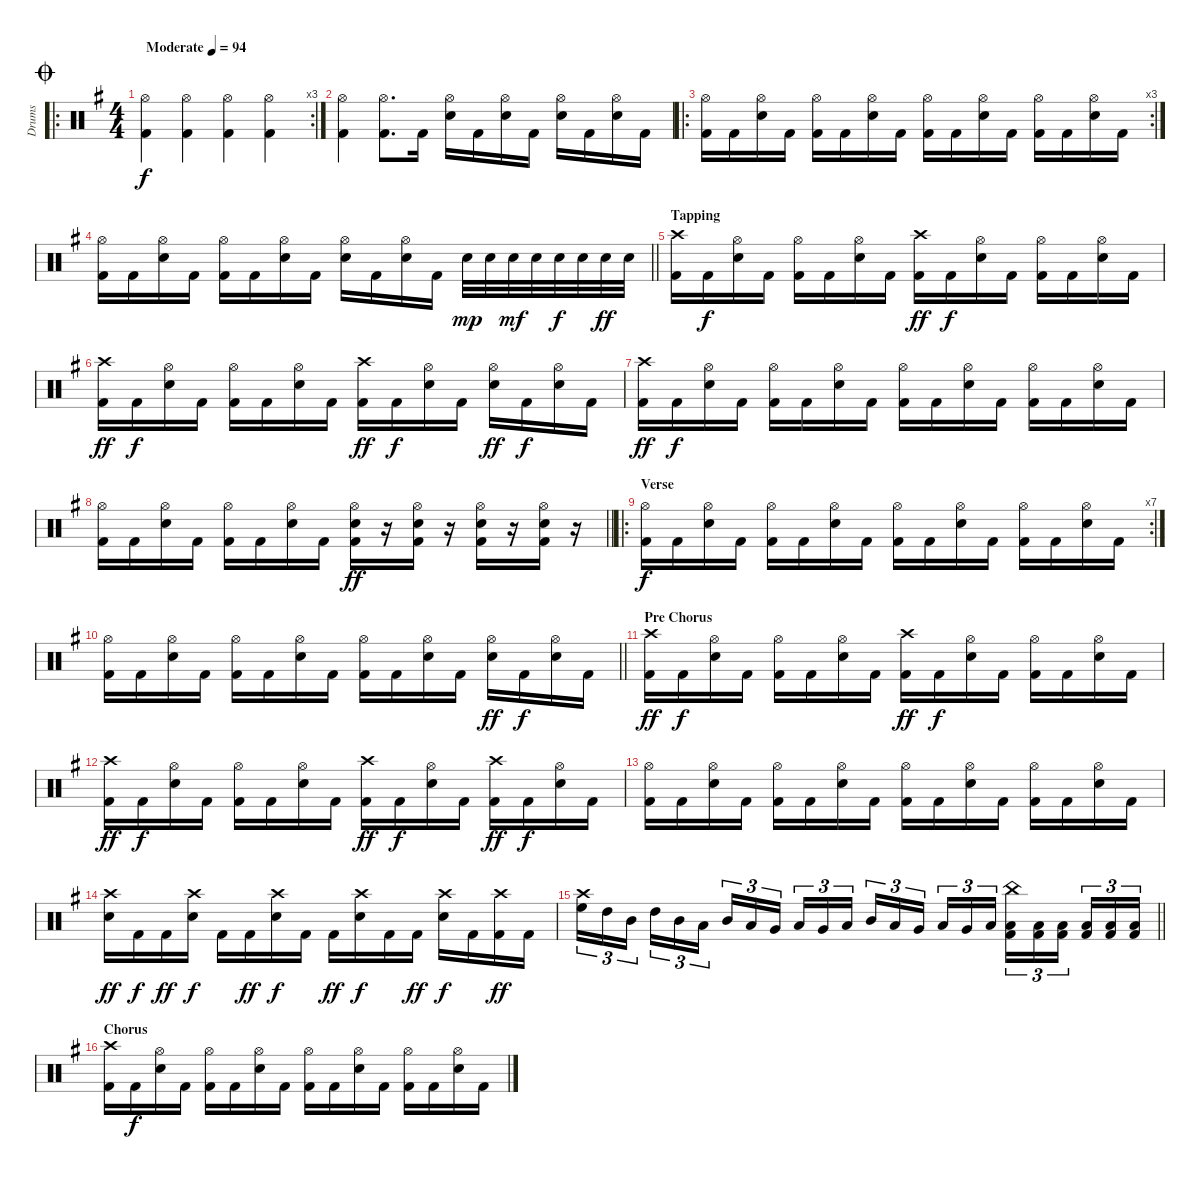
\track ("Drums" "Drums") {instrument percussion}
\staff {score}
\articulation defaults
\ro
\rc 3
\ts (4 4)
\jump coda
\tempo (94 "Moderate")
\clef neutral
\ks g
("Hi-Hat (open)" "Kick (hit) 2").4{dy f} ("Hi-Hat (open)" "Kick (hit) 2").4 ("Hi-Hat (open)" "Kick (hit) 2").4 ("Hi-Hat (open)" "Kick (hit) 2").4 |
("Hi-Hat (open)" "Kick (hit) 2").4 ("Hi-Hat (open)" "Kick (hit) 2").8{d} "Kick (hit) 2".16 ("Hi-Hat (open)" "Snare (hit) 2").16 "Kick (hit) 2".16 ("Hi-Hat (open)" "Snare (hit) 2").16 "Kick (hit) 2".16 ("Hi-Hat (open)" "Snare (hit) 2").16 "Kick (hit) 2".16 ("Hi-Hat (open)" "Snare (hit) 2").16 "Kick (hit) 2".16 |
\ro
\rc 3
("Hi-Hat (open)" "Kick (hit) 2").16 "Kick (hit) 2".16 ("Hi-Hat (open)" "Snare (hit) 2").16 "Kick (hit) 2".16 ("Hi-Hat (open)" "Kick (hit) 2").16 "Kick (hit) 2".16 ("Hi-Hat (open)" "Snare (hit) 2").16 "Kick (hit) 2".16 ("Hi-Hat (open)" "Kick (hit) 2").16 "Kick (hit) 2".16 ("Hi-Hat (open)" "Snare (hit) 2").16 "Kick (hit) 2".16 ("Hi-Hat (open)" "Kick (hit) 2").16 "Kick (hit) 2".16 ("Hi-Hat (open)" "Snare (hit) 2").16 "Kick (hit) 2".16 |
\barLineRight lightlight
("Hi-Hat (open)" "Kick (hit) 2").16 "Kick (hit) 2".16 ("Hi-Hat (open)" "Snare (hit) 2").16 "Kick (hit) 2".16 ("Hi-Hat (open)" "Kick (hit) 2").16 "Kick (hit) 2".16 ("Hi-Hat (open)" "Snare (hit) 2").16 "Kick (hit) 2".16 ("Hi-Hat (open)" "Snare (hit) 2").16 "Kick (hit) 2".16 ("Hi-Hat (open)" "Snare (hit) 2").16 "Kick (hit) 2".16 "Snare (hit) 2".32{dy mp} "Snare (hit) 2".32 "Snare (hit) 2".32{dy mf} "Snare (hit) 2".32 "Snare (hit) 2".32{dy f} "Snare (hit) 2".32 "Snare (hit) 2".32{dy ff} "Snare (hit) 2".32 |
\section ("" "Tapping")
("Crash high (hit)" "Kick (hit) 2").16 "Kick (hit) 2".16{dy f} ("Hi-Hat (open)" "Snare (hit) 2").16 "Kick (hit) 2".16 ("Hi-Hat (open)" "Kick (hit) 2").16 "Kick (hit) 2".16 ("Hi-Hat (open)" "Snare (hit) 2").16 "Kick (hit) 2".16 ("Crash high (hit)" "Kick (hit) 2").16{dy ff} "Kick (hit) 2".16{dy f} ("Hi-Hat (open)" "Snare (hit) 2").16 "Kick (hit) 2".16 ("Hi-Hat (open)" "Kick (hit) 2").16 "Kick (hit) 2".16 ("Hi-Hat (open)" "Snare (hit) 2").16 "Kick (hit) 2".16 |
("Crash high (hit)" "Kick (hit) 2").16{dy ff} "Kick (hit) 2".16{dy f} ("Hi-Hat (open)" "Snare (hit) 2").16 "Kick (hit) 2".16 ("Hi-Hat (open)" "Kick (hit) 2").16 "Kick (hit) 2".16 ("Hi-Hat (open)" "Snare (hit) 2").16 "Kick (hit) 2".16 ("Crash high (hit)" "Kick (hit) 2").16{dy ff} "Kick (hit) 2".16{dy f} ("Hi-Hat (open)" "Snare (hit) 2").16 "Kick (hit) 2".16 ("Hi-Hat (open)" "Snare (hit) 2").16{dy ff} "Kick (hit) 2".16{dy f} ("Hi-Hat (open)" "Snare (hit) 2").16 "Kick (hit) 2".16 |
("Crash high (hit)" "Kick (hit) 2").16{dy ff} "Kick (hit) 2".16{dy f} ("Hi-Hat (open)" "Snare (hit) 2").16 "Kick (hit) 2".16 ("Hi-Hat (open)" "Kick (hit) 2").16 "Kick (hit) 2".16 ("Hi-Hat (open)" "Snare (hit) 2").16 "Kick (hit) 2".16 ("Hi-Hat (open)" "Kick (hit) 2").16 "Kick (hit) 2".16 ("Hi-Hat (open)" "Snare (hit) 2").16 "Kick (hit) 2".16 ("Hi-Hat (open)" "Kick (hit) 2").16 "Kick (hit) 2".16 ("Hi-Hat (open)" "Snare (hit) 2").16 "Kick (hit) 2".16 |
\barLineRight lightlight
("Hi-Hat (open)" "Kick (hit) 2").16 "Kick (hit) 2".16 ("Hi-Hat (open)" "Snare (hit) 2").16 "Kick (hit) 2".16 ("Hi-Hat (open)" "Kick (hit) 2").16 "Kick (hit) 2".16 ("Hi-Hat (open)" "Snare (hit) 2").16 "Kick (hit) 2".16 ("Hi-Hat (open)" "Snare (hit) 2" "Kick (hit) 2").16{dy ff} r.16 ("Hi-Hat (open)" "Snare (hit) 2" "Kick (hit) 2").16 r.16 ("Hi-Hat (open)" "Snare (hit) 2" "Kick (hit) 2").16 r.16 ("Hi-Hat (open)" "Snare (hit) 2" "Kick (hit) 2").16 r.16 |
\ro
\rc 7
\section ("" "Verse")
("Hi-Hat (open)" "Kick (hit) 2").16{dy f} "Kick (hit) 2".16 ("Hi-Hat (open)" "Snare (hit) 2").16 "Kick (hit) 2".16 ("Hi-Hat (open)" "Kick (hit) 2").16 "Kick (hit) 2".16 ("Hi-Hat (open)" "Snare (hit) 2").16 "Kick (hit) 2".16 ("Hi-Hat (open)" "Kick (hit) 2").16 "Kick (hit) 2".16 ("Hi-Hat (open)" "Snare (hit) 2").16 "Kick (hit) 2".16 ("Hi-Hat (open)" "Kick (hit) 2").16 "Kick (hit) 2".16 ("Hi-Hat (open)" "Snare (hit) 2").16 "Kick (hit) 2".16 |
\barLineRight lightlight
("Hi-Hat (open)" "Kick (hit) 2").16 "Kick (hit) 2".16 ("Hi-Hat (open)" "Snare (hit) 2").16 "Kick (hit) 2".16 ("Hi-Hat (open)" "Kick (hit) 2").16 "Kick (hit) 2".16 ("Hi-Hat (open)" "Snare (hit) 2").16 "Kick (hit) 2".16 ("Hi-Hat (open)" "Kick (hit) 2").16 "Kick (hit) 2".16 ("Hi-Hat (open)" "Snare (hit) 2").16 "Kick (hit) 2".16 ("Hi-Hat (open)" "Snare (hit) 2").16{dy ff} "Kick (hit) 2".16{dy f} ("Hi-Hat (open)" "Snare (hit) 2").16 "Kick (hit) 2".16 |
\section ("" "Pre Chorus")
("Crash high (hit)" "Kick (hit) 2").16{dy ff} "Kick (hit) 2".16{dy f} ("Hi-Hat (open)" "Snare (hit) 2").16 "Kick (hit) 2".16 ("Hi-Hat (open)" "Kick (hit) 2").16 "Kick (hit) 2".16 ("Hi-Hat (open)" "Snare (hit) 2").16 "Kick (hit) 2".16 ("Crash high (hit)" "Kick (hit) 2").16{dy ff} "Kick (hit) 2".16{dy f} ("Hi-Hat (open)" "Snare (hit) 2").16 "Kick (hit) 2".16 ("Hi-Hat (open)" "Kick (hit) 2").16 "Kick (hit) 2".16 ("Hi-Hat (open)" "Snare (hit) 2").16 "Kick (hit) 2".16 |
("Crash high (hit)" "Kick (hit) 2").16{dy ff} "Kick (hit) 2".16{dy f} ("Hi-Hat (open)" "Snare (hit) 2").16 "Kick (hit) 2".16 ("Hi-Hat (open)" "Kick (hit) 2").16 "Kick (hit) 2".16 ("Hi-Hat (open)" "Snare (hit) 2").16 "Kick (hit) 2".16 ("Crash high (hit)" "Kick (hit) 2").16{dy ff} "Kick (hit) 2".16{dy f} ("Hi-Hat (open)" "Snare (hit) 2").16 "Kick (hit) 2".16 ("Crash high (hit)" "Kick (hit) 2").16{dy ff} "Kick (hit) 2".16{dy f} ("Hi-Hat (open)" "Snare (hit) 2").16 "Kick (hit) 2".16 |
("Hi-Hat (open)" "Kick (hit) 2").16 "Kick (hit) 2".16 ("Hi-Hat (open)" "Snare (hit) 2").16 "Kick (hit) 2".16 ("Hi-Hat (open)" "Kick (hit) 2").16 "Kick (hit) 2".16 ("Hi-Hat (open)" "Snare (hit) 2").16 "Kick (hit) 2".16 ("Hi-Hat (open)" "Kick (hit) 2").16 "Kick (hit) 2".16 ("Hi-Hat (open)" "Snare (hit) 2").16 "Kick (hit) 2".16 ("Hi-Hat (open)" "Kick (hit) 2").16 "Kick (hit) 2".16 ("Hi-Hat (open)" "Snare (hit) 2").16 "Kick (hit) 2".16 |
("Crash high (hit)" "Snare (hit) 2").16{dy ff} "Kick (hit) 2".16{dy f} "Kick (hit) 2".16{dy ff} ("Crash high (hit)" "Snare (hit) 2").16{dy f} "Kick (hit) 2".16 "Kick (hit) 2".16{dy ff} ("Crash high (hit)" "Snare (hit) 2").16{dy f} "Kick (hit) 2".16 "Kick (hit) 2".16{dy ff} ("Crash high (hit)" "Snare (hit) 2").16{dy f} "Kick (hit) 2".16 "Kick (hit) 2".16{dy ff} ("Crash high (hit)" "Snare (hit) 2").16{dy f} "Kick (hit) 2".16 ("Crash high (hit)" "Kick (hit) 2").16{dy ff} "Kick (hit) 2".16 |
\barLineRight lightlight
("Crash high (hit)" "High Floor Tom (hit)").16{tu (3 2)} "High Tom (hit)".16{tu (3 2)} "Mid Tom (hit)".16{tu (3 2) beam splitsecondary} "High Tom (hit)".16{tu (3 2)} "Mid Tom (hit)".16{tu (3 2)} "Low Tom (hit)".16{tu (3 2)} "Mid Tom (hit)".16{tu (3 2)} "Low Tom (hit)".16{tu (3 2)} "Very Low Tom (hit)".16{tu (3 2) beam splitsecondary} "Low Tom (hit)".16{tu (3 2)} "Very Low Tom (hit)".16{tu (3 2)} "Low Floor Tom (hit)".16{tu (3 2)} "Mid Tom (hit)".16{tu (3 2)} "Low Tom (hit)".16{tu (3 2)} "Very Low Tom (hit)".16{tu (3 2) beam splitsecondary} "Low Tom (hit)".16{tu (3 2)} "Very Low Tom (hit)".16{tu (3 2)} "Low Floor Tom (hit)".16{tu (3 2)} ("China (hit)" "Low Floor Tom (hit)" "Kick (hit) 2").16{tu (3 2)} ("Low Floor Tom (hit)" "Kick (hit) 2").16{tu (3 2)} ("Low Floor Tom (hit)" "Kick (hit) 2").16{tu (3 2) beam splitsecondary} ("Low Floor Tom (hit)" "Kick (hit) 2").16{tu (3 2)} ("Low Floor Tom (hit)" "Kick (hit) 2").16{tu (3 2)} ("Low Floor Tom (hit)" "Kick (hit) 2").16{tu (3 2)} |
\section ("" "Chorus")
("Crash high (hit)" "Kick (hit) 2").16 "Kick (hit) 2".16{dy f} ("Hi-Hat (open)" "Snare (hit) 2").16 "Kick (hit) 2".16 ("Hi-Hat (open)" "Kick (hit) 2").16 "Kick (hit) 2".16 ("Hi-Hat (open)" "Snare (hit) 2").16 "Kick (hit) 2".16 ("Hi-Hat (open)" "Kick (hit) 2").16 "Kick (hit) 2".16 ("Hi-Hat (open)" "Snare (hit) 2").16 "Kick (hit) 2".16 ("Hi-Hat (open)" "Kick (hit) 2").16 "Kick (hit) 2".16 ("Hi-Hat (open)" "Snare (hit) 2").16 "Kick (hit) 2".16
